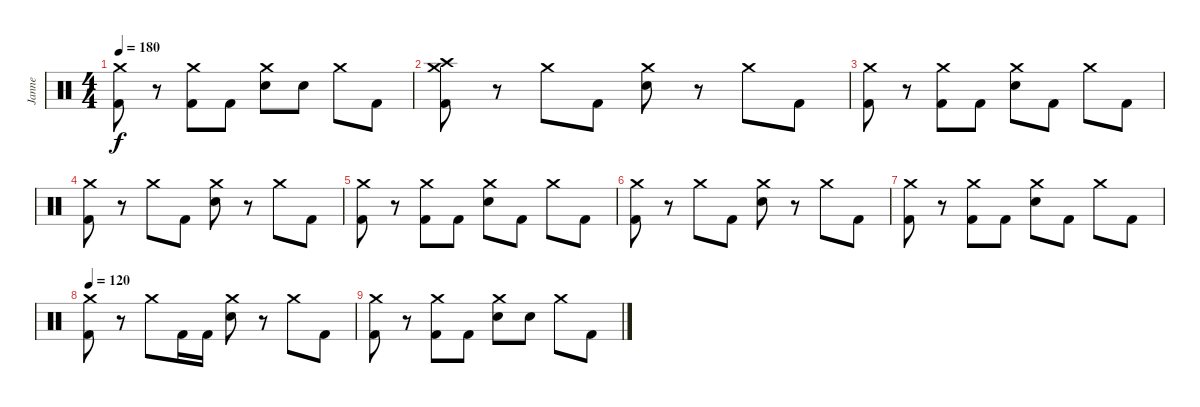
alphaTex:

\track ("Janne" "Janne") {instrument percussion}
\staff {score}
\articulation defaults
\ts (4 4)
\tempo 180
\clef neutral
\ks c
("Crash medium (hit)" "Kick (hit) 2").8{dy f} r.8 ("Crash medium (hit)" "Kick (hit) 2").8 "Kick (hit) 2".8 ("Crash medium (hit)" "Electric Snare (hit)").8 "Electric Snare (hit)".8 "Crash medium (hit)".8 "Kick (hit) 2".8 |
("Crash medium (hit)" "Crash high (hit)" "Kick (hit) 2").8{volume 3} r.8 "Crash medium (hit)".8 "Kick (hit) 2".8 ("Crash medium (hit)" "Electric Snare (hit)").8 r.8 "Crash medium (hit)".8 "Kick (hit) 2".8 |
("Crash medium (hit)" "Kick (hit) 2").8 r.8 ("Crash medium (hit)" "Kick (hit) 2").8 "Kick (hit) 2".8 ("Crash medium (hit)" "Electric Snare (hit)").8 "Kick (hit) 2".8 "Crash medium (hit)".8 "Kick (hit) 2".8 |
("Crash medium (hit)" "Kick (hit) 2").8 r.8 "Crash medium (hit)".8 "Kick (hit) 2".8 ("Crash medium (hit)" "Electric Snare (hit)").8 r.8 "Crash medium (hit)".8 "Kick (hit) 2".8 |
("Crash medium (hit)" "Kick (hit) 2").8 r.8 ("Crash medium (hit)" "Kick (hit) 2").8 "Kick (hit) 2".8 ("Crash medium (hit)" "Electric Snare (hit)").8 "Kick (hit) 2".8 "Crash medium (hit)".8 "Kick (hit) 2".8 |
("Crash medium (hit)" "Kick (hit) 2").8{volume 2} r.8 "Crash medium (hit)".8 "Kick (hit) 2".8 ("Crash medium (hit)" "Electric Snare (hit)").8 r.8 "Crash medium (hit)".8 "Kick (hit) 2".8 |
("Crash medium (hit)" "Kick (hit) 2").8 r.8 ("Crash medium (hit)" "Kick (hit) 2").8 "Kick (hit) 2".8 ("Crash medium (hit)" "Electric Snare (hit)").8 "Kick (hit) 2".8 "Crash medium (hit)".8 "Kick (hit) 2".8 |
\tempo 120
("Crash medium (hit)" "Kick (hit) 2").8{volume 0} r.8 "Crash medium (hit)".8 "Kick (hit) 2".16 "Kick (hit) 2".16 ("Crash medium (hit)" "Electric Snare (hit)").8 r.8 "Crash medium (hit)".8 "Kick (hit) 2".8 |
("Crash medium (hit)" "Kick (hit) 2").8 r.8 ("Crash medium (hit)" "Kick (hit) 2").8 "Kick (hit) 2".8 ("Crash medium (hit)" "Electric Snare (hit)").8 "Electric Snare (hit)".8 "Crash medium (hit)".8 "Kick (hit) 2".8
